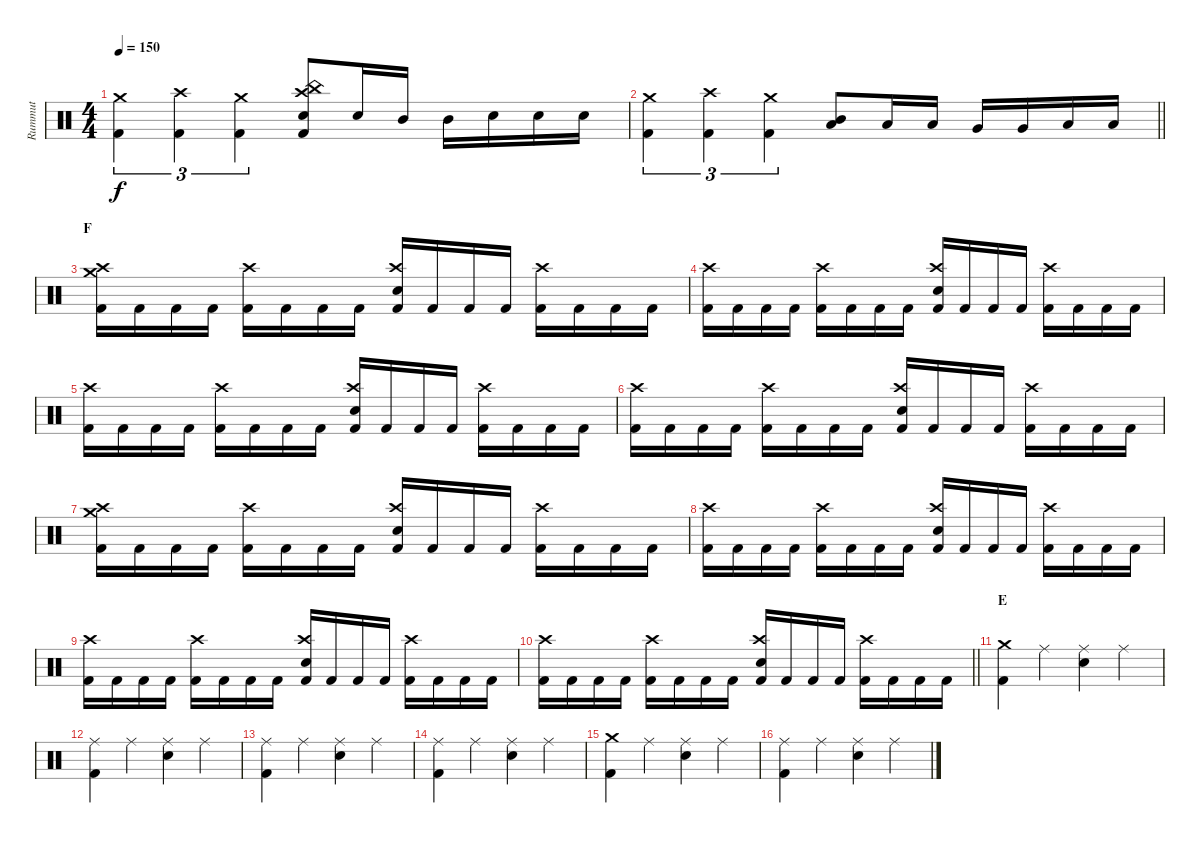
\track ("Rummut" "Rummut") {mute instrument percussion}
\staff {score}
\articulation defaults
\ts (4 4)
\tempo 150
\clef neutral
\ks c
("Crash medium (hit)" "Kick (hit) 2").4{tu (3 2) dy f} ("Crash high (hit)" "Kick (hit) 2").4{tu (3 2)} ("Crash medium (hit)" "Kick (hit) 2").4{tu (3 2)} ("China (hit)" "Crash high (hit)" "Electric Snare (hit)" "Kick (hit) 2").8 "Electric Snare (hit)".16 "Mid Tom (hit)".16 "Mid Tom (hit)".16 "Electric Snare (hit)".16 "Electric Snare (hit)".16 "Electric Snare (hit)".16 |
\barLineRight lightlight
("Crash medium (hit)" "Kick (hit) 2").4{tu (3 2)} ("Crash high (hit)" "Kick (hit) 2").4{tu (3 2)} ("Crash medium (hit)" "Kick (hit) 2").4{tu (3 2)} ("Mid Tom (hit)" "Low Tom (hit)").8 "Low Tom (hit)".16 "Low Tom (hit)".16 "Very Low Tom (hit)".16 "Very Low Tom (hit)".16 "Low Floor Tom (hit)".16 "Low Floor Tom (hit)".16 |
\section ("" "F")
("Crash medium (hit)" "Crash high (hit)" "Kick (hit) 2").16 "Kick (hit) 2".16 "Kick (hit) 2".16 "Kick (hit) 2".16 ("Crash high (hit)" "Kick (hit) 2").16 "Kick (hit) 2".16 "Kick (hit) 2".16 "Kick (hit) 2".16 ("Crash high (hit)" "Electric Snare (hit)" "Kick (hit) 2").16 "Kick (hit) 2".16 "Kick (hit) 2".16 "Kick (hit) 2".16 ("Crash high (hit)" "Kick (hit) 2").16 "Kick (hit) 2".16 "Kick (hit) 2".16 "Kick (hit) 2".16 |
("Crash high (hit)" "Kick (hit) 2").16 "Kick (hit) 2".16 "Kick (hit) 2".16 "Kick (hit) 2".16 ("Crash high (hit)" "Kick (hit) 2").16 "Kick (hit) 2".16 "Kick (hit) 2".16 "Kick (hit) 2".16 ("Crash high (hit)" "Electric Snare (hit)" "Kick (hit) 2").16 "Kick (hit) 2".16 "Kick (hit) 2".16 "Kick (hit) 2".16 ("Crash high (hit)" "Kick (hit) 2").16 "Kick (hit) 2".16 "Kick (hit) 2".16 "Kick (hit) 2".16 |
("Crash high (hit)" "Kick (hit) 2").16 "Kick (hit) 2".16 "Kick (hit) 2".16 "Kick (hit) 2".16 ("Crash high (hit)" "Kick (hit) 2").16 "Kick (hit) 2".16 "Kick (hit) 2".16 "Kick (hit) 2".16 ("Crash high (hit)" "Electric Snare (hit)" "Kick (hit) 2").16 "Kick (hit) 2".16 "Kick (hit) 2".16 "Kick (hit) 2".16 ("Crash high (hit)" "Kick (hit) 2").16 "Kick (hit) 2".16 "Kick (hit) 2".16 "Kick (hit) 2".16 |
("Crash high (hit)" "Kick (hit) 2").16 "Kick (hit) 2".16 "Kick (hit) 2".16 "Kick (hit) 2".16 ("Crash high (hit)" "Kick (hit) 2").16 "Kick (hit) 2".16 "Kick (hit) 2".16 "Kick (hit) 2".16 ("Crash high (hit)" "Electric Snare (hit)" "Kick (hit) 2").16 "Kick (hit) 2".16 "Kick (hit) 2".16 "Kick (hit) 2".16 ("Crash high (hit)" "Kick (hit) 2").16 "Kick (hit) 2".16 "Kick (hit) 2".16 "Kick (hit) 2".16 |
("Crash medium (hit)" "Crash high (hit)" "Kick (hit) 2").16 "Kick (hit) 2".16 "Kick (hit) 2".16 "Kick (hit) 2".16 ("Crash high (hit)" "Kick (hit) 2").16 "Kick (hit) 2".16 "Kick (hit) 2".16 "Kick (hit) 2".16 ("Crash high (hit)" "Electric Snare (hit)" "Kick (hit) 2").16 "Kick (hit) 2".16 "Kick (hit) 2".16 "Kick (hit) 2".16 ("Crash high (hit)" "Kick (hit) 2").16 "Kick (hit) 2".16 "Kick (hit) 2".16 "Kick (hit) 2".16 |
("Crash high (hit)" "Kick (hit) 2").16 "Kick (hit) 2".16 "Kick (hit) 2".16 "Kick (hit) 2".16 ("Crash high (hit)" "Kick (hit) 2").16 "Kick (hit) 2".16 "Kick (hit) 2".16 "Kick (hit) 2".16 ("Crash high (hit)" "Electric Snare (hit)" "Kick (hit) 2").16 "Kick (hit) 2".16 "Kick (hit) 2".16 "Kick (hit) 2".16 ("Crash high (hit)" "Kick (hit) 2").16 "Kick (hit) 2".16 "Kick (hit) 2".16 "Kick (hit) 2".16 |
("Crash high (hit)" "Kick (hit) 2").16 "Kick (hit) 2".16 "Kick (hit) 2".16 "Kick (hit) 2".16 ("Crash high (hit)" "Kick (hit) 2").16 "Kick (hit) 2".16 "Kick (hit) 2".16 "Kick (hit) 2".16 ("Crash high (hit)" "Electric Snare (hit)" "Kick (hit) 2").16 "Kick (hit) 2".16 "Kick (hit) 2".16 "Kick (hit) 2".16 ("Crash high (hit)" "Kick (hit) 2").16 "Kick (hit) 2".16 "Kick (hit) 2".16 "Kick (hit) 2".16 |
\barLineRight lightlight
("Crash high (hit)" "Kick (hit) 2").16 "Kick (hit) 2".16 "Kick (hit) 2".16 "Kick (hit) 2".16 ("Crash high (hit)" "Kick (hit) 2").16 "Kick (hit) 2".16 "Kick (hit) 2".16 "Kick (hit) 2".16 ("Crash high (hit)" "Electric Snare (hit)" "Kick (hit) 2").16 "Kick (hit) 2".16 "Kick (hit) 2".16 "Kick (hit) 2".16 ("Crash high (hit)" "Kick (hit) 2").16 "Kick (hit) 2".16 "Kick (hit) 2".16 "Kick (hit) 2".16 |
\section ("" "E")
("Crash medium (hit)" "Kick (hit) 2").4 "Ride (middle)".4 ("Ride (middle)" "Electric Snare (hit)").4 "Ride (middle)".4 |
("Ride (middle)" "Kick (hit) 2").4 "Ride (middle)".4 ("Ride (middle)" "Electric Snare (hit)").4 "Ride (middle)".4 |
("Ride (middle)" "Kick (hit) 2").4 "Ride (middle)".4 ("Ride (middle)" "Electric Snare (hit)").4 "Ride (middle)".4 |
("Ride (middle)" "Kick (hit) 2").4 "Ride (middle)".4 ("Ride (middle)" "Electric Snare (hit)").4 "Ride (middle)".4 |
("Crash medium (hit)" "Kick (hit) 2").4 "Ride (middle)".4 ("Ride (middle)" "Electric Snare (hit)").4 "Ride (middle)".4 |
("Ride (middle)" "Kick (hit) 2").4 "Ride (middle)".4 ("Ride (middle)" "Electric Snare (hit)").4 "Ride (middle)".4
